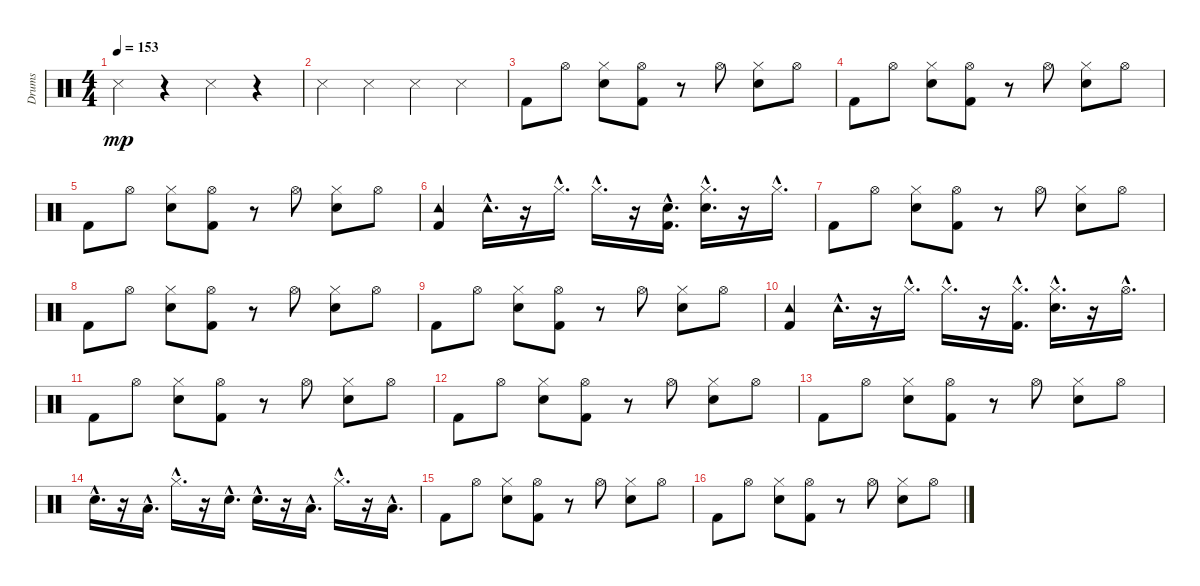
\track ("Drums" "Drums") {instrument percussion}
\staff {score}
\articulation defaults
\ts (4 4)
\tempo 153
\clef neutral
\ks c "Snare (side stick) 3".4{dy mp}
r.4 "Snare (side stick) 3".4 r.4 |
"Snare (side stick) 3".4 "Snare (side stick) 3".4 "Snare (side stick) 3".4 "Snare (side stick) 3".4 |
"Kick (hit) 2".8 "Hi-Hat (open)".8 ("Snare (hit) 2" "Hi-Hat (closed)").8 ("Kick (hit) 2" "Hi-Hat (open)").8 r.8 "Hi-Hat (open)".8 ("Snare (hit) 2" "Hi-Hat (closed)").8 "Hi-Hat (open)".8 |
"Kick (hit) 2".8 "Hi-Hat (open)".8 ("Snare (hit) 2" "Hi-Hat (closed)").8 ("Kick (hit) 2" "Hi-Hat (open)").8 r.8 "Hi-Hat (open)".8 ("Snare (hit) 2" "Hi-Hat (closed)").8 "Hi-Hat (open)".8 |
"Kick (hit) 2".8 "Hi-Hat (open)".8 ("Snare (hit) 2" "Hi-Hat (closed)").8 ("Kick (hit) 2" "Hi-Hat (open)").8 r.8 "Hi-Hat (open)".8 ("Snare (hit) 2" "Hi-Hat (closed)").8 "Hi-Hat (open)".8 |
("Kick (hit) 2" "Tambourine (hit)").4 "Tambourine (hit)"{hac}.16{d} r.16 "Hi-Hat (closed)"{hac}.16{d} "Hi-Hat (closed)"{hac}.16{d} r.16 ("Kick (hit) 2"{hac} "Snare (hit) 2"{hac}).16{d} ("Snare (hit) 2"{hac} "Hi-Hat (closed)"{hac}).16{d} r.16 "Hi-Hat (closed)"{hac}.16{d} |
"Kick (hit) 2".8 "Hi-Hat (open)".8 ("Snare (hit) 2" "Hi-Hat (closed)").8 ("Kick (hit) 2" "Hi-Hat (open)").8 r.8 "Hi-Hat (open)".8 ("Snare (hit) 2" "Hi-Hat (closed)").8 "Hi-Hat (open)".8 |
"Kick (hit) 2".8 "Hi-Hat (open)".8 ("Snare (hit) 2" "Hi-Hat (closed)").8 ("Kick (hit) 2" "Hi-Hat (open)").8 r.8 "Hi-Hat (open)".8 ("Snare (hit) 2" "Hi-Hat (closed)").8 "Hi-Hat (open)".8 |
"Kick (hit) 2".8 "Hi-Hat (open)".8 ("Snare (hit) 2" "Hi-Hat (closed)").8 ("Kick (hit) 2" "Hi-Hat (open)").8 r.8 "Hi-Hat (open)".8 ("Snare (hit) 2" "Hi-Hat (closed)").8 "Hi-Hat (open)".8 |
("Kick (hit) 2" "Tambourine (hit)").4 "Tambourine (hit)"{hac}.16{d} r.16 "Hi-Hat (closed)"{hac}.16{d} "Hi-Hat (closed)"{hac}.16{d} r.16 ("Kick (hit) 2"{hac} "Hi-Hat (closed)"{hac}).16{d} ("Snare (hit) 2"{hac} "Hi-Hat (closed)"{hac}).16{d} r.16 "Hi-Hat (open)"{hac}.16{d} |
"Kick (hit) 2".8 "Hi-Hat (open)".8 ("Snare (hit) 2" "Hi-Hat (closed)").8 ("Kick (hit) 2" "Hi-Hat (open)").8 r.8 "Hi-Hat (open)".8 ("Snare (hit) 2" "Hi-Hat (closed)").8 "Hi-Hat (open)".8 |
"Kick (hit) 2".8 "Hi-Hat (open)".8 ("Snare (hit) 2" "Hi-Hat (closed)").8 ("Kick (hit) 2" "Hi-Hat (open)").8 r.8 "Hi-Hat (open)".8 ("Snare (hit) 2" "Hi-Hat (closed)").8 "Hi-Hat (open)".8 |
"Kick (hit) 2".8 "Hi-Hat (open)".8 ("Snare (hit) 2" "Hi-Hat (closed)").8 ("Kick (hit) 2" "Hi-Hat (open)").8 r.8 "Hi-Hat (open)".8 ("Snare (hit) 2" "Hi-Hat (closed)").8 "Hi-Hat (open)".8 |
"Snare (hit) 2"{hac}.16{d} r.16 "Low Floor Tom (hit)"{hac}.16{d} "Hi-Hat (closed)"{hac}.16{d} r.16 "Snare (hit) 2"{hac}.16{d} "Snare (hit) 2"{hac}.16{d} r.16 "Low Floor Tom (hit)"{hac}.16{d} "Hi-Hat (closed)"{hac}.16{d} r.16 "Low Floor Tom (hit)"{hac}.16{d} |
"Kick (hit) 2".8 "Hi-Hat (open)".8 ("Snare (hit) 2" "Hi-Hat (closed)").8 ("Kick (hit) 2" "Hi-Hat (open)").8 r.8 "Hi-Hat (open)".8 ("Snare (hit) 2" "Hi-Hat (closed)").8 "Hi-Hat (open)".8 |
"Kick (hit) 2".8 "Hi-Hat (open)".8 ("Snare (hit) 2" "Hi-Hat (closed)").8 ("Kick (hit) 2" "Hi-Hat (open)").8 r.8 "Hi-Hat (open)".8 ("Snare (hit) 2" "Hi-Hat (closed)").8 "Hi-Hat (open)".8
